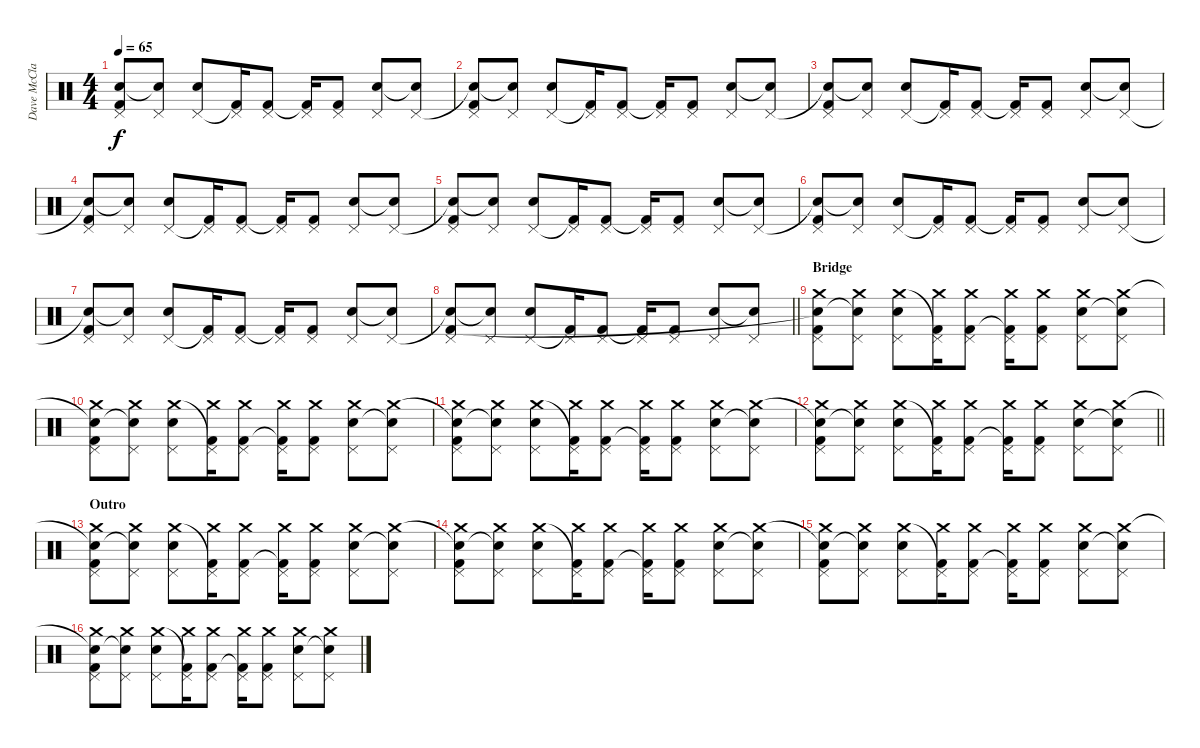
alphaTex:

\track ("Dave McClain" "Dave McCla") {instrument percussion bank 8}
\staff {score}
\articulation defaults
\ts (4 4)
\tempo 65
\clef neutral
\ks c
("Pedal Hi-Hat (hit)" "Snare (hit)"{t} "Kick (hit) 2").8{dy f} ("Pedal Hi-Hat (hit)" "Snare (hit)"{t}).8 ("Electric Snare (hit)" "Pedal Hi-Hat (hit)").8 ("Pedal Hi-Hat (hit)" "Kick (hit) 2"{t}).16 ("Pedal Hi-Hat (hit)" "Kick (hit) 2").8 ("Pedal Hi-Hat (hit)" "Kick (hit) 2"{t}).16 ("Pedal Hi-Hat (hit)" "Kick (hit) 2").8 ("Electric Snare (hit)" "Pedal Hi-Hat (hit)").8 ("Snare (hit)"{t} "Pedal Hi-Hat (hit)").8 |
("Pedal Hi-Hat (hit)" "Snare (hit)"{t} "Kick (hit) 2").8 ("Pedal Hi-Hat (hit)" "Snare (hit)"{t}).8 ("Electric Snare (hit)" "Pedal Hi-Hat (hit)").8 ("Pedal Hi-Hat (hit)" "Kick (hit) 2"{t}).16 ("Pedal Hi-Hat (hit)" "Kick (hit) 2").8 ("Pedal Hi-Hat (hit)" "Kick (hit) 2"{t}).16 ("Pedal Hi-Hat (hit)" "Kick (hit) 2").8 ("Electric Snare (hit)" "Pedal Hi-Hat (hit)").8 ("Snare (hit)"{t} "Pedal Hi-Hat (hit)").8 |
("Pedal Hi-Hat (hit)" "Snare (hit)"{t} "Kick (hit) 2").8 ("Pedal Hi-Hat (hit)" "Snare (hit)"{t}).8 ("Electric Snare (hit)" "Pedal Hi-Hat (hit)").8 ("Pedal Hi-Hat (hit)" "Kick (hit) 2"{t}).16 ("Pedal Hi-Hat (hit)" "Kick (hit) 2").8 ("Pedal Hi-Hat (hit)" "Kick (hit) 2"{t}).16 ("Pedal Hi-Hat (hit)" "Kick (hit) 2").8 ("Electric Snare (hit)" "Pedal Hi-Hat (hit)").8 ("Snare (hit)"{t} "Pedal Hi-Hat (hit)").8 |
("Pedal Hi-Hat (hit)" "Snare (hit)"{t} "Kick (hit) 2").8 ("Pedal Hi-Hat (hit)" "Snare (hit)"{t}).8 ("Electric Snare (hit)" "Pedal Hi-Hat (hit)").8 ("Pedal Hi-Hat (hit)" "Kick (hit) 2"{t}).16 ("Pedal Hi-Hat (hit)" "Kick (hit) 2").8 ("Pedal Hi-Hat (hit)" "Kick (hit) 2"{t}).16 ("Pedal Hi-Hat (hit)" "Kick (hit) 2").8 ("Electric Snare (hit)" "Pedal Hi-Hat (hit)").8 ("Snare (hit)"{t} "Pedal Hi-Hat (hit)").8 |
("Pedal Hi-Hat (hit)" "Snare (hit)"{t} "Kick (hit) 2").8 ("Pedal Hi-Hat (hit)" "Snare (hit)"{t}).8 ("Electric Snare (hit)" "Pedal Hi-Hat (hit)").8 ("Pedal Hi-Hat (hit)" "Kick (hit) 2"{t}).16 ("Pedal Hi-Hat (hit)" "Kick (hit) 2").8 ("Pedal Hi-Hat (hit)" "Kick (hit) 2"{t}).16 ("Pedal Hi-Hat (hit)" "Kick (hit) 2").8 ("Electric Snare (hit)" "Pedal Hi-Hat (hit)").8 ("Snare (hit)"{t} "Pedal Hi-Hat (hit)").8 |
("Pedal Hi-Hat (hit)" "Snare (hit)"{t} "Kick (hit) 2").8 ("Pedal Hi-Hat (hit)" "Snare (hit)"{t}).8 ("Electric Snare (hit)" "Pedal Hi-Hat (hit)").8 ("Pedal Hi-Hat (hit)" "Kick (hit) 2"{t}).16 ("Pedal Hi-Hat (hit)" "Kick (hit) 2").8 ("Pedal Hi-Hat (hit)" "Kick (hit) 2"{t}).16 ("Pedal Hi-Hat (hit)" "Kick (hit) 2").8 ("Electric Snare (hit)" "Pedal Hi-Hat (hit)").8 ("Snare (hit)"{t} "Pedal Hi-Hat (hit)").8 |
("Pedal Hi-Hat (hit)" "Snare (hit)"{t} "Kick (hit) 2").8 ("Pedal Hi-Hat (hit)" "Snare (hit)"{t}).8 ("Electric Snare (hit)" "Pedal Hi-Hat (hit)").8 ("Pedal Hi-Hat (hit)" "Kick (hit) 2"{t}).16 ("Pedal Hi-Hat (hit)" "Kick (hit) 2").8 ("Pedal Hi-Hat (hit)" "Kick (hit) 2"{t}).16 ("Pedal Hi-Hat (hit)" "Kick (hit) 2").8 ("Electric Snare (hit)" "Pedal Hi-Hat (hit)").8 ("Snare (hit)"{t} "Pedal Hi-Hat (hit)").8 |
\barLineRight lightlight
("Pedal Hi-Hat (hit)" "Snare (hit)"{t} "Kick (hit) 2").8 ("Pedal Hi-Hat (hit)" "Snare (hit)"{t}).8 ("Electric Snare (hit)" "Pedal Hi-Hat (hit)").8 ("Pedal Hi-Hat (hit)" "Kick (hit) 2"{t}).16 ("Pedal Hi-Hat (hit)" "Kick (hit) 2").8 ("Pedal Hi-Hat (hit)" "Kick (hit) 2"{t}).16 ("Pedal Hi-Hat (hit)" "Kick (hit) 2").8 ("Electric Snare (hit)" "Pedal Hi-Hat (hit)").8 ("Snare (hit)"{t} "Pedal Hi-Hat (hit)").8 |
\section ("" "Bridge")
("Pedal Hi-Hat (hit)" "Crash medium (hit)" "Snare (hit)"{t} "Kick (hit) 2").8 ("Pedal Hi-Hat (hit)" "Crash medium (hit)" "Snare (hit)"{t}).8 ("Electric Snare (hit)" "Pedal Hi-Hat (hit)" "Crash medium (hit)").8 ("Pedal Hi-Hat (hit)" "Crash medium (hit)" "Kick (hit) 2"{t}).16 ("Pedal Hi-Hat (hit)" "Crash medium (hit)" "Kick (hit) 2").8 ("Pedal Hi-Hat (hit)" "Crash medium (hit)" "Kick (hit) 2"{t}).16 ("Pedal Hi-Hat (hit)" "Crash medium (hit)" "Kick (hit) 2").8 ("Electric Snare (hit)" "Pedal Hi-Hat (hit)" "Crash medium (hit)").8 ("Snare (hit)"{t} "Pedal Hi-Hat (hit)" "Crash medium (hit)").8 |
("Pedal Hi-Hat (hit)" "Crash medium (hit)" "Snare (hit)"{t} "Kick (hit) 2").8 ("Pedal Hi-Hat (hit)" "Crash medium (hit)" "Snare (hit)"{t}).8 ("Electric Snare (hit)" "Pedal Hi-Hat (hit)" "Crash medium (hit)").8 ("Pedal Hi-Hat (hit)" "Crash medium (hit)" "Kick (hit) 2"{t}).16 ("Pedal Hi-Hat (hit)" "Crash medium (hit)" "Kick (hit) 2").8 ("Pedal Hi-Hat (hit)" "Crash medium (hit)" "Kick (hit) 2"{t}).16 ("Pedal Hi-Hat (hit)" "Crash medium (hit)" "Kick (hit) 2").8 ("Electric Snare (hit)" "Pedal Hi-Hat (hit)" "Crash medium (hit)").8 ("Snare (hit)"{t} "Pedal Hi-Hat (hit)" "Crash medium (hit)").8 |
("Pedal Hi-Hat (hit)" "Crash medium (hit)" "Snare (hit)"{t} "Kick (hit) 2").8 ("Pedal Hi-Hat (hit)" "Crash medium (hit)" "Snare (hit)"{t}).8 ("Electric Snare (hit)" "Pedal Hi-Hat (hit)" "Crash medium (hit)").8 ("Pedal Hi-Hat (hit)" "Crash medium (hit)" "Kick (hit) 2"{t}).16 ("Pedal Hi-Hat (hit)" "Crash medium (hit)" "Kick (hit) 2").8 ("Pedal Hi-Hat (hit)" "Crash medium (hit)" "Kick (hit) 2"{t}).16 ("Pedal Hi-Hat (hit)" "Crash medium (hit)" "Kick (hit) 2").8 ("Electric Snare (hit)" "Pedal Hi-Hat (hit)" "Crash medium (hit)").8 ("Snare (hit)"{t} "Pedal Hi-Hat (hit)" "Crash medium (hit)").8 |
\barLineRight lightlight
("Pedal Hi-Hat (hit)" "Crash medium (hit)" "Snare (hit)"{t} "Kick (hit) 2").8 ("Pedal Hi-Hat (hit)" "Crash medium (hit)" "Snare (hit)"{t}).8 ("Electric Snare (hit)" "Pedal Hi-Hat (hit)" "Crash medium (hit)").8 ("Pedal Hi-Hat (hit)" "Crash medium (hit)" "Kick (hit) 2"{t}).16 ("Pedal Hi-Hat (hit)" "Crash medium (hit)" "Kick (hit) 2").8 ("Pedal Hi-Hat (hit)" "Crash medium (hit)" "Kick (hit) 2"{t}).16 ("Pedal Hi-Hat (hit)" "Crash medium (hit)" "Kick (hit) 2").8 ("Electric Snare (hit)" "Pedal Hi-Hat (hit)" "Crash medium (hit)").8 ("Snare (hit)"{t} "Pedal Hi-Hat (hit)" "Crash medium (hit)").8 |
\section ("" "Outro")
("Pedal Hi-Hat (hit)" "Crash medium (hit)" "Snare (hit)"{t} "Kick (hit) 2").8 ("Pedal Hi-Hat (hit)" "Crash medium (hit)" "Snare (hit)"{t}).8 ("Electric Snare (hit)" "Pedal Hi-Hat (hit)" "Crash medium (hit)").8 ("Pedal Hi-Hat (hit)" "Crash medium (hit)" "Kick (hit) 2"{t}).16 ("Pedal Hi-Hat (hit)" "Crash medium (hit)" "Kick (hit) 2").8 ("Pedal Hi-Hat (hit)" "Crash medium (hit)" "Kick (hit) 2"{t}).16 ("Pedal Hi-Hat (hit)" "Crash medium (hit)" "Kick (hit) 2").8 ("Electric Snare (hit)" "Pedal Hi-Hat (hit)" "Crash medium (hit)").8 ("Snare (hit)"{t} "Pedal Hi-Hat (hit)" "Crash medium (hit)").8 |
("Pedal Hi-Hat (hit)" "Crash medium (hit)" "Snare (hit)"{t} "Kick (hit) 2").8 ("Pedal Hi-Hat (hit)" "Crash medium (hit)" "Snare (hit)"{t}).8 ("Electric Snare (hit)" "Pedal Hi-Hat (hit)" "Crash medium (hit)").8 ("Pedal Hi-Hat (hit)" "Crash medium (hit)" "Kick (hit) 2"{t}).16 ("Pedal Hi-Hat (hit)" "Crash medium (hit)" "Kick (hit) 2").8 ("Pedal Hi-Hat (hit)" "Crash medium (hit)" "Kick (hit) 2"{t}).16 ("Pedal Hi-Hat (hit)" "Crash medium (hit)" "Kick (hit) 2").8 ("Electric Snare (hit)" "Pedal Hi-Hat (hit)" "Crash medium (hit)").8 ("Snare (hit)"{t} "Pedal Hi-Hat (hit)" "Crash medium (hit)").8 |
("Pedal Hi-Hat (hit)" "Crash medium (hit)" "Snare (hit)"{t} "Kick (hit) 2").8 ("Pedal Hi-Hat (hit)" "Crash medium (hit)" "Snare (hit)"{t}).8 ("Electric Snare (hit)" "Pedal Hi-Hat (hit)" "Crash medium (hit)").8 ("Pedal Hi-Hat (hit)" "Crash medium (hit)" "Kick (hit) 2"{t}).16 ("Pedal Hi-Hat (hit)" "Crash medium (hit)" "Kick (hit) 2").8 ("Pedal Hi-Hat (hit)" "Crash medium (hit)" "Kick (hit) 2"{t}).16 ("Pedal Hi-Hat (hit)" "Crash medium (hit)" "Kick (hit) 2").8 ("Electric Snare (hit)" "Pedal Hi-Hat (hit)" "Crash medium (hit)").8 ("Snare (hit)"{t} "Pedal Hi-Hat (hit)" "Crash medium (hit)").8 |
("Pedal Hi-Hat (hit)" "Crash medium (hit)" "Snare (hit)"{t} "Kick (hit) 2").8 ("Pedal Hi-Hat (hit)" "Crash medium (hit)" "Snare (hit)"{t}).8 ("Electric Snare (hit)" "Pedal Hi-Hat (hit)" "Crash medium (hit)").8 ("Pedal Hi-Hat (hit)" "Crash medium (hit)" "Kick (hit) 2"{t}).16 ("Pedal Hi-Hat (hit)" "Crash medium (hit)" "Kick (hit) 2").8 ("Pedal Hi-Hat (hit)" "Crash medium (hit)" "Kick (hit) 2"{t}).16 ("Pedal Hi-Hat (hit)" "Crash medium (hit)" "Kick (hit) 2").8 ("Electric Snare (hit)" "Pedal Hi-Hat (hit)" "Crash medium (hit)").8 ("Snare (hit)"{t} "Pedal Hi-Hat (hit)" "Crash medium (hit)").8
